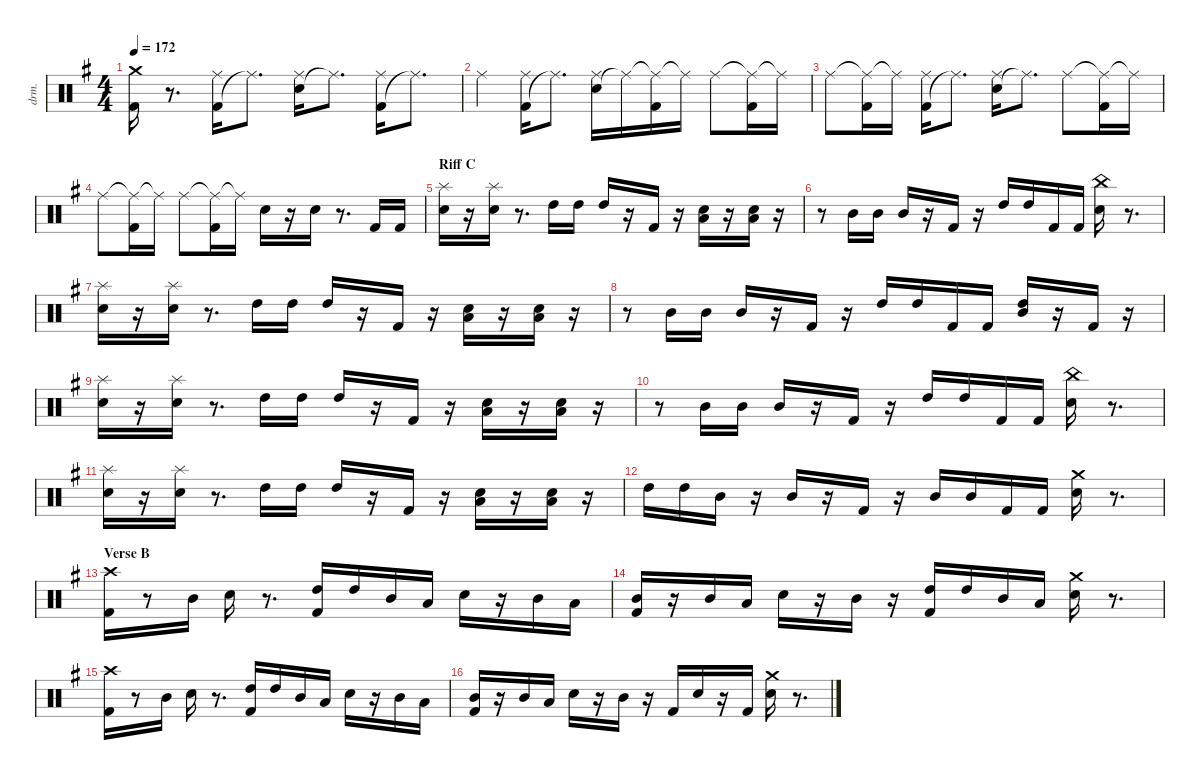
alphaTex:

\defaultSystemsLayout 4
\hideDynamics
\bracketExtendMode nobrackets
\otherSystemsTrackNameOrientation horizontal
\track ("Shinya" "drm.") {instrument percussion}
\staff {score}
\articulation defaults
\ts (4 4)
\tempo 172
\clef neutral
\ks eminor
("Kick (hit) 2"{acc forcenatural} "Crash medium (hit)"{acc forcenatural}).16{dy fff beam Down} r.8{d beam Down} ("Kick (hit) 2"{acc forcenatural} "Ride (middle)"{acc #}).16{beam Down} "Ride (middle)"{t acc #}.8{d beam Down} ("Snare (hit) 2"{acc forcenatural} "Ride (middle)"{acc #}).16{beam Down} "Ride (middle)"{t acc #}.8{d beam Down} ("Kick (hit) 2"{acc forcenatural} "Ride (middle)"{acc #}).16{beam Down} "Ride (middle)"{t acc #}.8{d beam Down} |
"Ride (middle)"{acc #}.4{beam Down} ("Kick (hit) 2"{acc forcenatural} "Ride (middle)"{acc #}).16{beam Down} "Ride (middle)"{t acc #}.8{d beam Down} ("Snare (hit) 2"{acc forcenatural} "Ride (middle)"{acc #}).16{beam Down} "Ride (middle)"{t acc #}.16{beam Down} ("Ride (middle)"{t acc #} "Kick (hit) 2"{acc forcenatural}).16{beam Down} "Ride (middle)"{t acc #}.16{beam Down} "Ride (middle)"{acc #}.8{beam Down} ("Ride (middle)"{t acc #} "Kick (hit) 2"{acc forcenatural}).16{beam Down} "Ride (middle)"{t acc #}.16{beam Down} |
"Ride (middle)"{acc #}.8{beam Down} ("Ride (middle)"{t acc #} "Kick (hit) 2"{acc forcenatural}).16{beam Down} "Ride (middle)"{t acc #}.16{beam Down} ("Kick (hit) 2"{acc forcenatural} "Ride (middle)"{acc #}).16{beam Down} "Ride (middle)"{t acc #}.8{d beam Down} ("Snare (hit) 2"{acc forcenatural} "Ride (middle)"{acc #}).16{beam Down} "Ride (middle)"{t acc #}.8{d beam Down} "Ride (middle)"{acc #}.8{beam Down} ("Ride (middle)"{t acc #} "Kick (hit) 2"{acc forcenatural}).16{beam Down} "Ride (middle)"{t acc #}.16{beam Down} |
"Ride (middle)"{acc #}.8{beam Down} ("Ride (middle)"{t acc #} "Kick (hit) 2"{acc forcenatural}).16{beam Down} "Ride (middle)"{t acc #}.16{beam Down} "Ride (middle)"{acc #}.8{beam Down} ("Ride (middle)"{t acc #} "Kick (hit) 2"{acc forcenatural}).16{beam Down} "Ride (middle)"{t acc #}.16{beam Down} "Snare (hit) 2"{acc forcenatural}.16{beam Down} r.16{beam Down} "Snare (hit) 2"{acc forcenatural}.16{beam Down} r.8{d beam Down} "Kick (hit) 2"{acc forcenatural}.16{beam Up} "Kick (hit) 2"{acc forcenatural}.16{beam Up} |
\section ("" "Riff C")
("Snare (hit) 2"{acc forcenatural} "Splash (hit)"{acc forcenatural}).16{beam Down} r.16{beam Down} ("Snare (hit) 2"{acc forcenatural} "Splash (hit)"{acc forcenatural}).16{beam Down} r.8{d beam Down} "High Tom (hit)"{acc forcenatural}.16{beam Down} "High Tom (hit)"{acc forcenatural}.16{beam Down} "High Tom (hit)"{acc forcenatural}.16{beam Up} r.16{beam Up} "Kick (hit) 2"{acc forcenatural}.16{beam Up} r.16{beam Up} ("Snare (hit) 2"{acc forcenatural} "Low Tom (hit)"{acc forcenatural}).16{beam Down} r.16{beam Down} ("Snare (hit) 2"{acc forcenatural} "Low Tom (hit)"{acc forcenatural}).16{beam Down} r.16{beam Down} |
r.8{beam Down} "Mid Tom (hit)"{acc forcenatural}.16{beam Up} "Mid Tom (hit)"{acc forcenatural}.16{beam Up} "Mid Tom (hit)"{acc forcenatural}.16{beam Up} r.16{beam Up} "Kick (hit) 2"{acc forcenatural}.16{beam Up} r.16{beam Up} "High Tom (hit)"{acc forcenatural}.16{beam Up} "High Tom (hit)"{acc forcenatural}.16{beam Up} "Kick (hit) 2"{acc forcenatural}.16{beam Up} "Kick (hit) 2"{acc forcenatural}.16{beam Up} ("Snare (hit) 2"{acc forcenatural} "China (hit)"{acc forcenatural}).16{beam Down} r.8{d beam Down} |
("Snare (hit) 2"{acc forcenatural} "Splash (hit)"{acc forcenatural}).16{beam Down} r.16{beam Down} ("Snare (hit) 2"{acc forcenatural} "Splash (hit)"{acc forcenatural}).16{beam Down} r.8{d beam Down} "High Tom (hit)"{acc forcenatural}.16{beam Down} "High Tom (hit)"{acc forcenatural}.16{beam Down} "High Tom (hit)"{acc forcenatural}.16{beam Up} r.16{beam Up} "Kick (hit) 2"{acc forcenatural}.16{beam Up} r.16{beam Up} ("Snare (hit) 2"{acc forcenatural} "Low Tom (hit)"{acc forcenatural}).16{beam Down} r.16{beam Down} ("Snare (hit) 2"{acc forcenatural} "Low Tom (hit)"{acc forcenatural}).16{beam Down} r.16{beam Down} |
r.8{beam Down} "Mid Tom (hit)"{acc forcenatural}.16{beam Up} "Mid Tom (hit)"{acc forcenatural}.16{beam Up} "Mid Tom (hit)"{acc forcenatural}.16{beam Up} r.16{beam Up} "Kick (hit) 2"{acc forcenatural}.16{beam Up} r.16{beam Up} "High Tom (hit)"{acc forcenatural}.16{beam Up} "High Tom (hit)"{acc forcenatural}.16{beam Up} "Kick (hit) 2"{acc forcenatural}.16{beam Up} "Kick (hit) 2"{acc forcenatural}.16{beam Up} ("Mid Tom (hit)"{acc forcenatural} "High Tom (hit)"{acc forcenatural}).16{beam Up} r.16{beam Up} "Kick (hit) 2"{acc forcenatural}.16{beam Up} r.16{beam Up} |
("Snare (hit) 2"{acc forcenatural} "Splash (hit)"{acc forcenatural}).16{beam Down} r.16{beam Down} ("Snare (hit) 2"{acc forcenatural} "Splash (hit)"{acc forcenatural}).16{beam Down} r.8{d beam Down} "High Tom (hit)"{acc forcenatural}.16{beam Down} "High Tom (hit)"{acc forcenatural}.16{beam Down} "High Tom (hit)"{acc forcenatural}.16{beam Up} r.16{beam Up} "Kick (hit) 2"{acc forcenatural}.16{beam Up} r.16{beam Up} ("Snare (hit) 2"{acc forcenatural} "Low Tom (hit)"{acc forcenatural}).16{beam Down} r.16{beam Down} ("Snare (hit) 2"{acc forcenatural} "Low Tom (hit)"{acc forcenatural}).16{beam Down} r.16{beam Down} |
r.8{beam Down} "Mid Tom (hit)"{acc forcenatural}.16{beam Up} "Mid Tom (hit)"{acc forcenatural}.16{beam Up} "Mid Tom (hit)"{acc forcenatural}.16{beam Up} r.16{beam Up} "Kick (hit) 2"{acc forcenatural}.16{beam Up} r.16{beam Up} "High Tom (hit)"{acc forcenatural}.16{beam Up} "High Tom (hit)"{acc forcenatural}.16{beam Up} "Kick (hit) 2"{acc forcenatural}.16{beam Up} "Kick (hit) 2"{acc forcenatural}.16{beam Up} ("Snare (hit) 2"{acc forcenatural} "China (hit)"{acc forcenatural}).16{beam Down} r.8{d beam Down} |
("Snare (hit) 2"{acc forcenatural} "Splash (hit)"{acc forcenatural}).16{beam Down} r.16{beam Down} ("Snare (hit) 2"{acc forcenatural} "Splash (hit)"{acc forcenatural}).16{beam Down} r.8{d beam Down} "High Tom (hit)"{acc forcenatural}.16{beam Down} "High Tom (hit)"{acc forcenatural}.16{beam Down} "High Tom (hit)"{acc forcenatural}.16{beam Up} r.16{beam Up} "Kick (hit) 2"{acc forcenatural}.16{beam Up} r.16{beam Up} ("Snare (hit) 2"{acc forcenatural} "Low Tom (hit)"{acc forcenatural}).16{beam Down} r.16{beam Down} ("Snare (hit) 2"{acc forcenatural} "Low Tom (hit)"{acc forcenatural}).16{beam Down} r.16{beam Down} |
"High Tom (hit)"{acc forcenatural}.16{beam Down} "High Tom (hit)"{acc forcenatural}.16{beam Down} "Mid Tom (hit)"{acc forcenatural}.16{beam Down} r.16{beam Down} "Mid Tom (hit)"{acc forcenatural}.16{beam Up} r.16{beam Up} "Kick (hit) 2"{acc forcenatural}.16{beam Up} r.16{beam Up} "Mid Tom (hit)"{acc forcenatural}.16{beam Up} "Mid Tom (hit)"{acc forcenatural}.16{beam Up} "Kick (hit) 2"{acc forcenatural}.16{beam Up} "Kick (hit) 2"{acc forcenatural}.16{beam Up} ("Snare (hit) 2"{acc forcenatural} "Crash medium (hit)"{acc forcenatural}).16{beam Down} r.8{d beam Down} |
\section ("" "Verse B")
("Kick (hit) 2"{acc forcenatural} "Crash high (hit)"{acc #}).16{beam Down} r.8{beam Down} "Mid Tom (hit)"{acc forcenatural}.16{beam Down} "Snare (hit) 2"{acc forcenatural}.16{beam Down} r.8{d beam Down} ("Kick (hit) 2"{acc forcenatural} "High Tom (hit)"{acc forcenatural}).16{beam Up} "High Tom (hit)"{acc forcenatural}.16{beam Up} "Mid Tom (hit)"{acc forcenatural}.16{beam Up} "Low Tom (hit)"{acc forcenatural}.16{beam Up} "Snare (hit) 2"{acc forcenatural}.16{beam Down} r.16{beam Down} "Mid Tom (hit)"{acc forcenatural}.16{beam Down} "Low Tom (hit)"{acc forcenatural}.16{beam Down} |
("Kick (hit) 2"{acc forcenatural} "Mid Tom (hit)"{acc forcenatural}).16{beam Up} r.16{beam Up} "Mid Tom (hit)"{acc forcenatural}.16{beam Up} "Low Tom (hit)"{acc forcenatural}.16{dy ff beam Up} "Snare (hit) 2"{acc forcenatural}.16{dy fff beam Down} r.16{beam Down} "Mid Tom (hit)"{acc forcenatural}.16{beam Down} r.16{beam Down} ("Kick (hit) 2"{acc forcenatural} "High Tom (hit)"{acc forcenatural}).16{beam Up} "High Tom (hit)"{acc forcenatural}.16{beam Up} "Mid Tom (hit)"{acc forcenatural}.16{beam Up} "Low Tom (hit)"{acc forcenatural}.16{beam Up} ("Snare (hit) 2"{acc forcenatural} "Crash medium (hit)"{acc forcenatural}).16{beam Down} r.8{d beam Down} |
("Kick (hit) 2"{acc forcenatural} "Crash high (hit)"{acc #}).16{beam Down} r.8{beam Down} "Mid Tom (hit)"{acc forcenatural}.16{beam Down} "Snare (hit) 2"{acc forcenatural}.16{beam Down} r.8{d beam Down} ("Kick (hit) 2"{acc forcenatural} "High Tom (hit)"{acc forcenatural}).16{beam Up} "High Tom (hit)"{acc forcenatural}.16{beam Up} "Mid Tom (hit)"{acc forcenatural}.16{beam Up} "Low Tom (hit)"{acc forcenatural}.16{beam Up} "Snare (hit) 2"{acc forcenatural}.16{beam Down} r.16{beam Down} "Mid Tom (hit)"{acc forcenatural}.16{beam Down} "Low Tom (hit)"{acc forcenatural}.16{beam Down} |
("Kick (hit) 2"{acc forcenatural} "Mid Tom (hit)"{acc forcenatural}).16{beam Up} r.16{beam Up} "Mid Tom (hit)"{acc forcenatural}.16{beam Up} "Low Tom (hit)"{acc forcenatural}.16{dy ff beam Up} "Snare (hit) 2"{acc forcenatural}.16{dy fff beam Down} r.16{beam Down} "Mid Tom (hit)"{acc forcenatural}.16{beam Down} r.16{beam Down} "Kick (hit) 2"{acc forcenatural}.16{beam Up} "Snare (hit) 2"{acc forcenatural}.16{beam Up} r.16{beam Up} "Kick (hit) 2"{acc forcenatural}.16{beam Up} ("Snare (hit) 2"{acc forcenatural} "Crash medium (hit)"{acc forcenatural}).16{beam Down} r.8{d beam Down}
